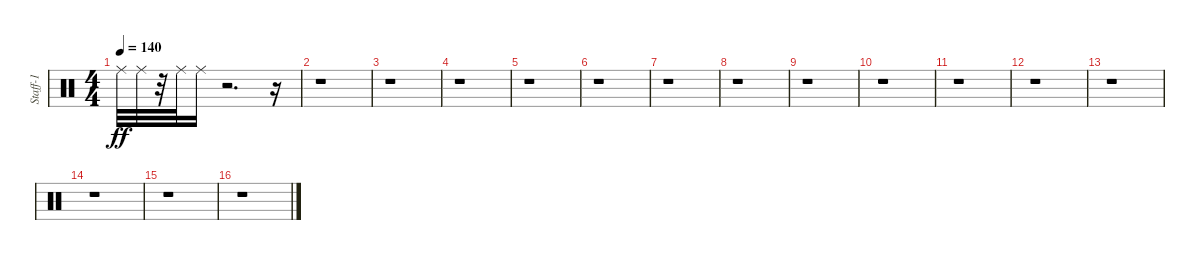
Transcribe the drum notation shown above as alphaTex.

\track ("Staff-1" "Staff-1") {instrument percussion}
\staff {score}
\articulation defaults
\ts (4 4)
\tempo 140
\clef neutral
\ks c "Ride (middle)".32{dy ff} "Ride (middle)".32
r.32 "Ride (middle)".32 "Ride (middle)".16 r.2{d} r.16 |
r.1 |
r.1 |
r.1 |
r.1 |
r.1 |
r.1 |
r.1 |
r.1 |
r.1 |
r.1 |
r.1 |
r.1 |
r.1 |
r.1 |
r.1
